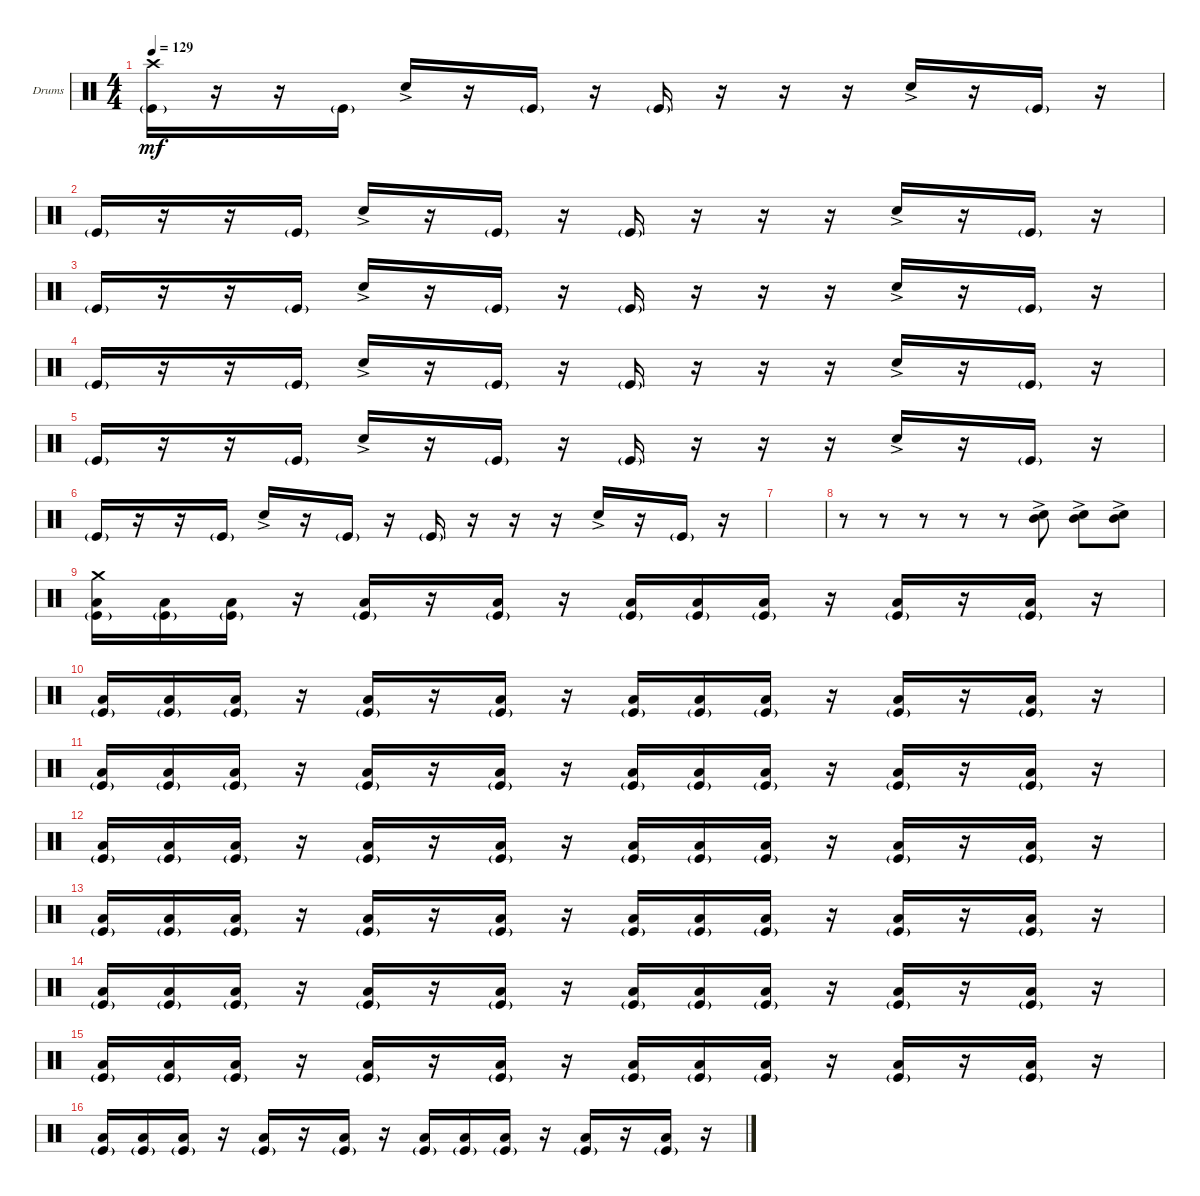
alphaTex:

\defaultSystemsLayout 4
\bracketExtendMode groupsimilarinstruments
\firstSystemTrackNameOrientation horizontal
\otherSystemsTrackNameOrientation horizontal
\track ("Drums" "Drums") {instrument percussion}
\staff {score}
\articulation defaults
\ts (4 4)
\tempo 129
\clef neutral
\ks c
("Kick (hit)"{g} "Crash high (hit)").16{dy mf} r.16 r.16 "Kick (hit)"{g}.16 "Snare (hit) 2"{ac}.16 r.16 "Kick (hit)"{g}.16 r.16 "Kick (hit)"{g}.16 r.16 r.16 r.16 "Snare (hit) 2"{ac}.16 r.16 "Kick (hit)"{g}.16 r.16 |
"Kick (hit)"{g}.16 r.16 r.16 "Kick (hit)"{g}.16 "Snare (hit) 2"{ac}.16 r.16 "Kick (hit)"{g}.16 r.16 "Kick (hit)"{g}.16 r.16 r.16 r.16 "Snare (hit) 2"{ac}.16 r.16 "Kick (hit)"{g}.16 r.16 |
"Kick (hit)"{g}.16 r.16 r.16 "Kick (hit)"{g}.16 "Snare (hit) 2"{ac}.16 r.16 "Kick (hit)"{g}.16 r.16 "Kick (hit)"{g}.16 r.16 r.16 r.16 "Snare (hit) 2"{ac}.16 r.16 "Kick (hit)"{g}.16 r.16 |
"Kick (hit)"{g}.16 r.16 r.16 "Kick (hit)"{g}.16 "Snare (hit) 2"{ac}.16 r.16 "Kick (hit)"{g}.16 r.16 "Kick (hit)"{g}.16 r.16 r.16 r.16 "Snare (hit) 2"{ac}.16 r.16 "Kick (hit)"{g}.16 r.16 |
"Kick (hit)"{g}.16 r.16 r.16 "Kick (hit)"{g}.16 "Snare (hit) 2"{ac}.16 r.16 "Kick (hit)"{g}.16 r.16 "Kick (hit)"{g}.16 r.16 r.16 r.16 "Snare (hit) 2"{ac}.16 r.16 "Kick (hit)"{g}.16 r.16 |
"Kick (hit)"{g}.16 r.16 r.16 "Kick (hit)"{g}.16 "Snare (hit) 2"{ac}.16 r.16 "Kick (hit)"{g}.16 r.16 "Kick (hit)"{g}.16 r.16 r.16 r.16 "Snare (hit) 2"{ac}.16 r.16 "Kick (hit)"{g}.16 r.16 |
|
r.8 r.8 r.8 r.8 r.8 ("Snare (hit) 2"{ac} "Mid Tom (hit)").8 ("Snare (hit) 2"{ac} "Mid Tom (hit)").8 ("Snare (hit) 2"{ac} "Mid Tom (hit)").8 |
("Kick (hit)"{g} "Low Tom (hit)" "Crash medium (hit)").16 ("Kick (hit)"{g} "Low Tom (hit)").16 ("Kick (hit)"{g} "Low Tom (hit)").16 r.16 ("Kick (hit)"{g} "Low Tom (hit)").16 r.16 ("Kick (hit)"{g} "Low Tom (hit)").16 r.16 ("Kick (hit)"{g} "Low Tom (hit)").16 ("Kick (hit)"{g} "Low Tom (hit)").16 ("Kick (hit)"{g} "Low Tom (hit)").16 r.16 ("Kick (hit)"{g} "Low Tom (hit)").16 r.16 ("Kick (hit)"{g} "Low Tom (hit)").16 r.16 |
("Kick (hit)"{g} "Low Tom (hit)").16 ("Kick (hit)"{g} "Low Tom (hit)").16 ("Kick (hit)"{g} "Low Tom (hit)").16 r.16 ("Kick (hit)"{g} "Low Tom (hit)").16 r.16 ("Kick (hit)"{g} "Low Tom (hit)").16 r.16 ("Kick (hit)"{g} "Low Tom (hit)").16 ("Kick (hit)"{g} "Low Tom (hit)").16 ("Kick (hit)"{g} "Low Tom (hit)").16 r.16 ("Kick (hit)"{g} "Low Tom (hit)").16 r.16 ("Kick (hit)"{g} "Low Tom (hit)").16 r.16 |
("Kick (hit)"{g} "Low Tom (hit)").16 ("Kick (hit)"{g} "Low Tom (hit)").16 ("Kick (hit)"{g} "Low Tom (hit)").16 r.16 ("Kick (hit)"{g} "Low Tom (hit)").16 r.16 ("Kick (hit)"{g} "Low Tom (hit)").16 r.16 ("Kick (hit)"{g} "Low Tom (hit)").16 ("Kick (hit)"{g} "Low Tom (hit)").16 ("Kick (hit)"{g} "Low Tom (hit)").16 r.16 ("Kick (hit)"{g} "Low Tom (hit)").16 r.16 ("Kick (hit)"{g} "Low Tom (hit)").16 r.16 |
("Kick (hit)"{g} "Low Tom (hit)").16 ("Kick (hit)"{g} "Low Tom (hit)").16 ("Kick (hit)"{g} "Low Tom (hit)").16 r.16 ("Kick (hit)"{g} "Low Tom (hit)").16 r.16 ("Kick (hit)"{g} "Low Tom (hit)").16 r.16 ("Kick (hit)"{g} "Low Tom (hit)").16 ("Kick (hit)"{g} "Low Tom (hit)").16 ("Kick (hit)"{g} "Low Tom (hit)").16 r.16 ("Kick (hit)"{g} "Low Tom (hit)").16 r.16 ("Kick (hit)"{g} "Low Tom (hit)").16 r.16 |
("Kick (hit)"{g} "Low Tom (hit)").16 ("Kick (hit)"{g} "Low Tom (hit)").16 ("Kick (hit)"{g} "Low Tom (hit)").16 r.16 ("Kick (hit)"{g} "Low Tom (hit)").16 r.16 ("Kick (hit)"{g} "Low Tom (hit)").16 r.16 ("Kick (hit)"{g} "Low Tom (hit)").16 ("Kick (hit)"{g} "Low Tom (hit)").16 ("Kick (hit)"{g} "Low Tom (hit)").16 r.16 ("Kick (hit)"{g} "Low Tom (hit)").16 r.16 ("Kick (hit)"{g} "Low Tom (hit)").16 r.16 |
("Kick (hit)"{g} "Low Tom (hit)").16 ("Kick (hit)"{g} "Low Tom (hit)").16 ("Kick (hit)"{g} "Low Tom (hit)").16 r.16 ("Kick (hit)"{g} "Low Tom (hit)").16 r.16 ("Kick (hit)"{g} "Low Tom (hit)").16 r.16 ("Kick (hit)"{g} "Low Tom (hit)").16 ("Kick (hit)"{g} "Low Tom (hit)").16 ("Kick (hit)"{g} "Low Tom (hit)").16 r.16 ("Kick (hit)"{g} "Low Tom (hit)").16 r.16 ("Kick (hit)"{g} "Low Tom (hit)").16 r.16 |
("Kick (hit)"{g} "Low Tom (hit)").16 ("Kick (hit)"{g} "Low Tom (hit)").16 ("Kick (hit)"{g} "Low Tom (hit)").16 r.16 ("Kick (hit)"{g} "Low Tom (hit)").16 r.16 ("Kick (hit)"{g} "Low Tom (hit)").16 r.16 ("Kick (hit)"{g} "Low Tom (hit)").16 ("Kick (hit)"{g} "Low Tom (hit)").16 ("Kick (hit)"{g} "Low Tom (hit)").16 r.16 ("Kick (hit)"{g} "Low Tom (hit)").16 r.16 ("Kick (hit)"{g} "Low Tom (hit)").16 r.16 |
("Kick (hit)"{g} "Low Tom (hit)").16 ("Kick (hit)"{g} "Low Tom (hit)").16 ("Kick (hit)"{g} "Low Tom (hit)").16 r.16 ("Kick (hit)"{g} "Low Tom (hit)").16 r.16 ("Kick (hit)"{g} "Low Tom (hit)").16 r.16 ("Kick (hit)"{g} "Low Tom (hit)").16 ("Kick (hit)"{g} "Low Tom (hit)").16 ("Kick (hit)"{g} "Low Tom (hit)").16 r.16 ("Kick (hit)"{g} "Low Tom (hit)").16 r.16 ("Kick (hit)"{g} "Low Tom (hit)").16 r.16
